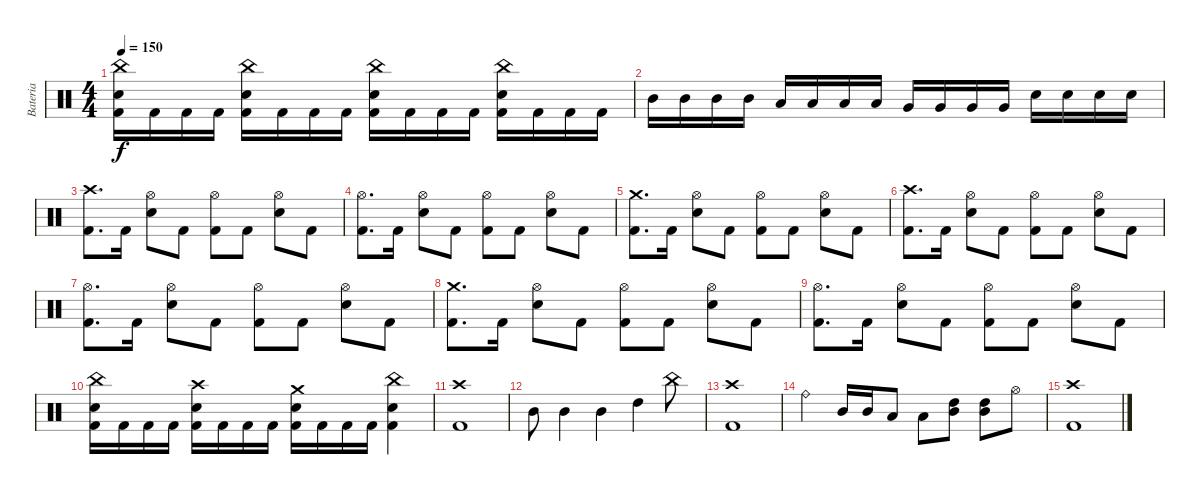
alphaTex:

\track ("Bateria" "Bateria") {instrument percussion}
\staff {score}
\articulation defaults
\ts (4 4)
\tempo 150
\clef neutral
\ks c
("China (hit)" "Snare (hit) 2" "Kick (hit) 2").16{dy f} "Kick (hit) 2".16 "Kick (hit) 2".16 "Kick (hit) 2".16 ("China (hit)" "Snare (hit) 2" "Kick (hit) 2").16 "Kick (hit) 2".16 "Kick (hit) 2".16 "Kick (hit) 2".16 ("China (hit)" "Snare (hit) 2" "Kick (hit) 2").16 "Kick (hit) 2".16 "Kick (hit) 2".16 "Kick (hit) 2".16 ("China (hit)" "Snare (hit) 2" "Kick (hit) 2").16 "Kick (hit) 2".16 "Kick (hit) 2".16 "Kick (hit) 2".16 |
"Mid Tom (hit)".16 "Mid Tom (hit)".16 "Mid Tom (hit)".16 "Mid Tom (hit)".16 "Low Tom (hit)".16 "Low Tom (hit)".16 "Low Tom (hit)".16 "Low Tom (hit)".16 "Very Low Tom (hit)".16 "Very Low Tom (hit)".16 "Very Low Tom (hit)".16 "Very Low Tom (hit)".16 "Snare (hit) 2".16 "Snare (hit) 2".16 "Snare (hit) 2".16 "Snare (hit) 2".16 |
("Crash high (hit)" "Kick (hit) 2").8{d} "Kick (hit) 2".16 ("Hi-Hat (open)" "Snare (hit) 2").8 "Kick (hit) 2".8 ("Hi-Hat (open)" "Kick (hit) 2").8 "Kick (hit) 2".8 ("Hi-Hat (open)" "Snare (hit) 2").8 "Kick (hit) 2".8 |
("Hi-Hat (open)" "Kick (hit) 2").8{d} "Kick (hit) 2".16 ("Hi-Hat (open)" "Snare (hit) 2").8 "Kick (hit) 2".8 ("Hi-Hat (open)" "Kick (hit) 2").8 "Kick (hit) 2".8 ("Hi-Hat (open)" "Snare (hit) 2").8 "Kick (hit) 2".8 |
("Crash medium (hit)" "Kick (hit) 2").8{d} "Kick (hit) 2".16 ("Hi-Hat (open)" "Snare (hit) 2").8 "Kick (hit) 2".8 ("Hi-Hat (open)" "Kick (hit) 2").8 "Kick (hit) 2".8 ("Hi-Hat (open)" "Snare (hit) 2").8 "Kick (hit) 2".8 |
("Crash high (hit)" "Kick (hit) 2").8{d} "Kick (hit) 2".16 ("Hi-Hat (open)" "Snare (hit) 2").8 "Kick (hit) 2".8 ("Hi-Hat (open)" "Kick (hit) 2").8 "Kick (hit) 2".8 ("Hi-Hat (open)" "Snare (hit) 2").8 "Kick (hit) 2".8 |
("Hi-Hat (open)" "Kick (hit) 2").8{d} "Kick (hit) 2".16 ("Hi-Hat (open)" "Snare (hit) 2").8 "Kick (hit) 2".8 ("Hi-Hat (open)" "Kick (hit) 2").8 "Kick (hit) 2".8 ("Hi-Hat (open)" "Snare (hit) 2").8 "Kick (hit) 2".8 |
("Crash medium (hit)" "Kick (hit) 2").8{d} "Kick (hit) 2".16 ("Hi-Hat (open)" "Snare (hit) 2").8 "Kick (hit) 2".8 ("Hi-Hat (open)" "Kick (hit) 2").8 "Kick (hit) 2".8 ("Hi-Hat (open)" "Snare (hit) 2").8 "Kick (hit) 2".8 |
("Hi-Hat (open)" "Kick (hit) 2").8{d} "Kick (hit) 2".16 ("Hi-Hat (open)" "Snare (hit) 2").8 "Kick (hit) 2".8 ("Hi-Hat (open)" "Kick (hit) 2").8 "Kick (hit) 2".8 ("Hi-Hat (open)" "Snare (hit) 2").8 "Kick (hit) 2".8 |
("China (hit)" "Snare (hit) 2" "Kick (hit) 2").16 "Kick (hit) 2".16 "Kick (hit) 2".16 "Kick (hit) 2".16 ("Crash high (hit)" "Snare (hit) 2" "Kick (hit) 2").16 "Kick (hit) 2".16 "Kick (hit) 2".16 "Kick (hit) 2".16 ("Crash medium (hit)" "Snare (hit) 2" "Kick (hit) 2").16 "Kick (hit) 2".16 "Kick (hit) 2".16 "Kick (hit) 2".16 ("China (hit)" "Snare (hit) 2" "Kick (hit) 2").4 |
("Crash high (hit)" "Kick (hit) 2").1 |
"Mid Tom (hit)".8 "Mid Tom (hit)".4 "Mid Tom (hit)".4 "High Tom (hit)".4 "China (hit)".8 |
("Crash high (hit)" "Kick (hit) 2").1 |
"Ride (bell)".4 "Mid Tom (hit)".16 "Mid Tom (hit)".16 "Low Tom (hit)".8 "Low Tom (hit)".8 ("Mid Tom (hit)" "High Tom (hit)").8 ("Mid Tom (hit)" "High Tom (hit)").8 "Hi-Hat (open)".8 |
("Crash high (hit)" "Kick (hit) 2").1
